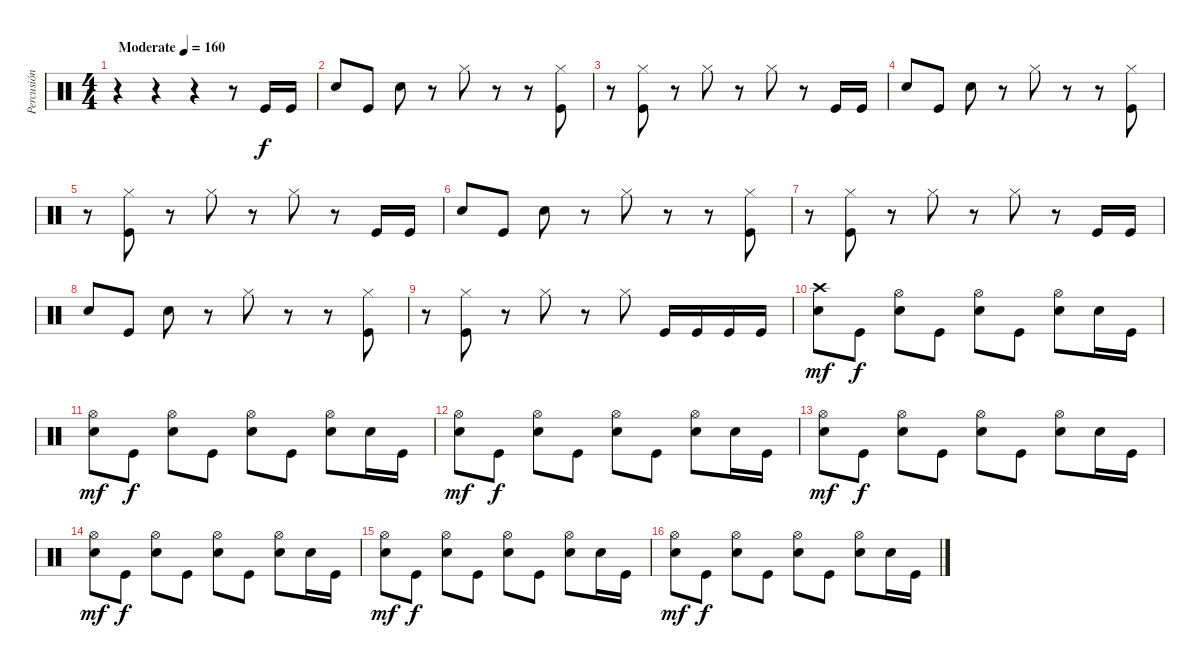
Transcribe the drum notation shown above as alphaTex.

\track ("Percusión" "Percusión") {instrument percussion}
\staff {score}
\articulation defaults
\ts (4 4)
\tempo (160 "Moderate")
\clef neutral
\ks c
r.4{dy f} r.4 r.4 r.8 "Kick (hit)".16 "Kick (hit)".16 |
"Electric Snare (hit)".8 "Kick (hit)".8 "Electric Snare (hit)".8 r.8 "Hi-Hat (closed)".8 r.8 r.8 ("Hi-Hat (closed)" "Kick (hit)").8 |
r.8 ("Hi-Hat (closed)" "Kick (hit)").8 r.8 "Hi-Hat (closed)".8 r.8 "Hi-Hat (closed)".8 r.8 "Kick (hit)".16 "Kick (hit)".16 |
"Electric Snare (hit)".8 "Kick (hit)".8 "Electric Snare (hit)".8 r.8 "Hi-Hat (closed)".8 r.8 r.8 ("Hi-Hat (closed)" "Kick (hit)").8 |
r.8 ("Hi-Hat (closed)" "Kick (hit)").8 r.8 "Hi-Hat (closed)".8 r.8 "Hi-Hat (closed)".8 r.8 "Kick (hit)".16 "Kick (hit)".16 |
"Electric Snare (hit)".8 "Kick (hit)".8 "Electric Snare (hit)".8 r.8 "Hi-Hat (closed)".8 r.8 r.8 ("Hi-Hat (closed)" "Kick (hit)").8 |
r.8 ("Hi-Hat (closed)" "Kick (hit)").8 r.8 "Hi-Hat (closed)".8 r.8 "Hi-Hat (closed)".8 r.8 "Kick (hit)".16 "Kick (hit)".16 |
"Electric Snare (hit)".8 "Kick (hit)".8 "Electric Snare (hit)".8 r.8 "Hi-Hat (closed)".8 r.8 r.8 ("Hi-Hat (closed)" "Kick (hit)").8 |
r.8 ("Hi-Hat (closed)" "Kick (hit)").8 r.8 "Hi-Hat (closed)".8 r.8 "Hi-Hat (closed)".8 "Kick (hit)".16 "Kick (hit)".16 "Kick (hit)".16 "Kick (hit)".16 |
("Crash high (hit)" "Electric Snare (hit)").8{dy mf} "Kick (hit)".8{dy f} ("Hi-Hat (open)" "Electric Snare (hit)").8 "Kick (hit)".8 ("Hi-Hat (open)" "Electric Snare (hit)").8 "Kick (hit)".8 ("Hi-Hat (open)" "Electric Snare (hit)").8 "Snare (hit)".16 "Kick (hit)".16 |
("Hi-Hat (open)" "Electric Snare (hit)").8{dy mf} "Kick (hit)".8{dy f} ("Hi-Hat (open)" "Electric Snare (hit)").8 "Kick (hit)".8 ("Hi-Hat (open)" "Electric Snare (hit)").8 "Kick (hit)".8 ("Hi-Hat (open)" "Electric Snare (hit)").8 "Snare (hit)".16 "Kick (hit)".16 |
("Hi-Hat (open)" "Electric Snare (hit)").8{dy mf} "Kick (hit)".8{dy f} ("Hi-Hat (open)" "Electric Snare (hit)").8 "Kick (hit)".8 ("Hi-Hat (open)" "Electric Snare (hit)").8 "Kick (hit)".8 ("Hi-Hat (open)" "Electric Snare (hit)").8 "Snare (hit)".16 "Kick (hit)".16 |
("Hi-Hat (open)" "Electric Snare (hit)").8{dy mf} "Kick (hit)".8{dy f} ("Hi-Hat (open)" "Electric Snare (hit)").8 "Kick (hit)".8 ("Hi-Hat (open)" "Electric Snare (hit)").8 "Kick (hit)".8 ("Hi-Hat (open)" "Electric Snare (hit)").8 "Snare (hit)".16 "Kick (hit)".16 |
("Hi-Hat (open)" "Electric Snare (hit)").8{dy mf} "Kick (hit)".8{dy f} ("Hi-Hat (open)" "Electric Snare (hit)").8 "Kick (hit)".8 ("Hi-Hat (open)" "Electric Snare (hit)").8 "Kick (hit)".8 ("Hi-Hat (open)" "Electric Snare (hit)").8 "Snare (hit)".16 "Kick (hit)".16 |
("Hi-Hat (open)" "Electric Snare (hit)").8{dy mf} "Kick (hit)".8{dy f} ("Hi-Hat (open)" "Electric Snare (hit)").8 "Kick (hit)".8 ("Hi-Hat (open)" "Electric Snare (hit)").8 "Kick (hit)".8 ("Hi-Hat (open)" "Electric Snare (hit)").8 "Snare (hit)".16 "Kick (hit)".16 |
("Hi-Hat (open)" "Electric Snare (hit)").8{dy mf} "Kick (hit)".8{dy f} ("Hi-Hat (open)" "Electric Snare (hit)").8 "Kick (hit)".8 ("Hi-Hat (open)" "Electric Snare (hit)").8 "Kick (hit)".8 ("Hi-Hat (open)" "Electric Snare (hit)").8 "Snare (hit)".16 "Kick (hit)".16
